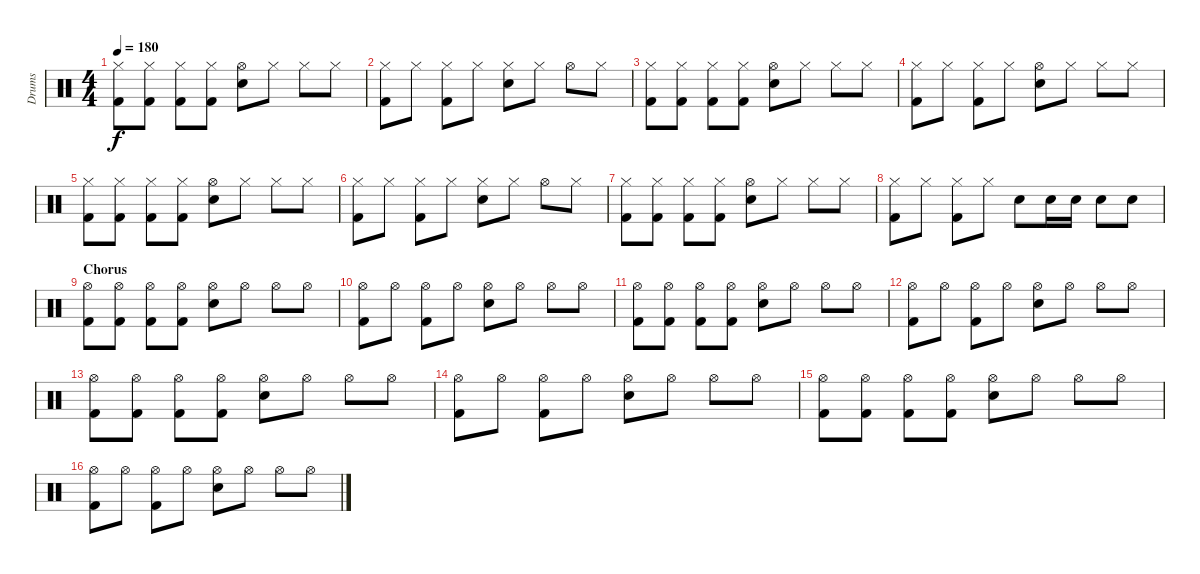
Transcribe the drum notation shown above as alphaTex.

\track ("Drums" "Drums") {instrument percussion}
\staff {score}
\articulation defaults
\ts (4 4)
\tempo 180
\clef neutral
\ks c
("Hi-Hat (closed)" "Kick (hit) 2").8{dy f} ("Hi-Hat (closed)" "Kick (hit) 2").8 ("Hi-Hat (closed)" "Kick (hit) 2").8 ("Hi-Hat (closed)" "Kick (hit) 2").8 ("Hi-Hat (open)" "Electric Snare (hit)").8 "Hi-Hat (closed)".8 "Hi-Hat (closed)".8 "Hi-Hat (closed)".8 |
("Hi-Hat (closed)" "Kick (hit) 2").8 "Hi-Hat (closed)".8 ("Hi-Hat (closed)" "Kick (hit) 2").8 "Hi-Hat (closed)".8 ("Hi-Hat (closed)" "Electric Snare (hit)").8 "Hi-Hat (closed)".8 "Hi-Hat (open)".8 "Hi-Hat (closed)".8 |
("Hi-Hat (closed)" "Kick (hit) 2").8 ("Hi-Hat (closed)" "Kick (hit) 2").8 ("Hi-Hat (closed)" "Kick (hit) 2").8 ("Hi-Hat (closed)" "Kick (hit) 2").8 ("Hi-Hat (open)" "Electric Snare (hit)").8 "Hi-Hat (closed)".8 "Hi-Hat (closed)".8 "Hi-Hat (closed)".8 |
("Hi-Hat (closed)" "Kick (hit) 2").8 "Hi-Hat (closed)".8 ("Hi-Hat (closed)" "Kick (hit) 2").8 "Hi-Hat (closed)".8 ("Hi-Hat (open)" "Electric Snare (hit)").8 "Hi-Hat (closed)".8 "Hi-Hat (closed)".8 "Hi-Hat (closed)".8 |
("Hi-Hat (closed)" "Kick (hit) 2").8 ("Hi-Hat (closed)" "Kick (hit) 2").8 ("Hi-Hat (closed)" "Kick (hit) 2").8 ("Hi-Hat (closed)" "Kick (hit) 2").8 ("Hi-Hat (open)" "Electric Snare (hit)").8 "Hi-Hat (closed)".8 "Hi-Hat (closed)".8 "Hi-Hat (closed)".8 |
("Hi-Hat (closed)" "Kick (hit) 2").8 "Hi-Hat (closed)".8 ("Hi-Hat (closed)" "Kick (hit) 2").8 "Hi-Hat (closed)".8 ("Hi-Hat (closed)" "Electric Snare (hit)").8 "Hi-Hat (closed)".8 "Hi-Hat (open)".8 "Hi-Hat (closed)".8 |
("Hi-Hat (closed)" "Kick (hit) 2").8 ("Hi-Hat (closed)" "Kick (hit) 2").8 ("Hi-Hat (closed)" "Kick (hit) 2").8 ("Hi-Hat (closed)" "Kick (hit) 2").8 ("Hi-Hat (open)" "Electric Snare (hit)").8 "Hi-Hat (closed)".8 "Hi-Hat (closed)".8 "Hi-Hat (closed)".8 |
("Hi-Hat (closed)" "Kick (hit) 2").8 "Hi-Hat (closed)".8 ("Hi-Hat (closed)" "Kick (hit) 2").8 "Hi-Hat (closed)".8 "Snare (hit) 2".8 "Snare (hit) 2".16 "Snare (hit) 2".16 "Snare (hit) 2".8 "Snare (hit) 2".8 |
\section ("" "Chorus")
("Hi-Hat (open)" "Kick (hit) 2").8 ("Hi-Hat (open)" "Kick (hit) 2").8 ("Hi-Hat (open)" "Kick (hit) 2").8 ("Hi-Hat (open)" "Kick (hit) 2").8 ("Hi-Hat (open)" "Electric Snare (hit)").8 "Hi-Hat (open)".8 "Hi-Hat (open)".8 "Hi-Hat (open)".8 |
("Hi-Hat (open)" "Kick (hit) 2").8 "Hi-Hat (open)".8 ("Hi-Hat (open)" "Kick (hit) 2").8 "Hi-Hat (open)".8 ("Hi-Hat (open)" "Electric Snare (hit)").8 "Hi-Hat (open)".8 "Hi-Hat (open)".8 "Hi-Hat (open)".8 |
("Hi-Hat (open)" "Kick (hit) 2").8 ("Hi-Hat (open)" "Kick (hit) 2").8 ("Hi-Hat (open)" "Kick (hit) 2").8 ("Hi-Hat (open)" "Kick (hit) 2").8 ("Hi-Hat (open)" "Electric Snare (hit)").8 "Hi-Hat (open)".8 "Hi-Hat (open)".8 "Hi-Hat (open)".8 |
("Hi-Hat (open)" "Kick (hit) 2").8 "Hi-Hat (open)".8 ("Hi-Hat (open)" "Kick (hit) 2").8 "Hi-Hat (open)".8 ("Hi-Hat (open)" "Electric Snare (hit)").8 "Hi-Hat (open)".8 "Hi-Hat (open)".8 "Hi-Hat (open)".8 |
("Hi-Hat (open)" "Kick (hit) 2").8 ("Hi-Hat (open)" "Kick (hit) 2").8 ("Hi-Hat (open)" "Kick (hit) 2").8 ("Hi-Hat (open)" "Kick (hit) 2").8 ("Hi-Hat (open)" "Electric Snare (hit)").8 "Hi-Hat (open)".8 "Hi-Hat (open)".8 "Hi-Hat (open)".8 |
("Hi-Hat (open)" "Kick (hit) 2").8 "Hi-Hat (open)".8 ("Hi-Hat (open)" "Kick (hit) 2").8 "Hi-Hat (open)".8 ("Hi-Hat (open)" "Electric Snare (hit)").8 "Hi-Hat (open)".8 "Hi-Hat (open)".8 "Hi-Hat (open)".8 |
("Hi-Hat (open)" "Kick (hit) 2").8 ("Hi-Hat (open)" "Kick (hit) 2").8 ("Hi-Hat (open)" "Kick (hit) 2").8 ("Hi-Hat (open)" "Kick (hit) 2").8 ("Hi-Hat (open)" "Electric Snare (hit)").8 "Hi-Hat (open)".8 "Hi-Hat (open)".8 "Hi-Hat (open)".8 |
("Hi-Hat (open)" "Kick (hit) 2").8 "Hi-Hat (open)".8 ("Hi-Hat (open)" "Kick (hit) 2").8 "Hi-Hat (open)".8 ("Hi-Hat (open)" "Electric Snare (hit)").8 "Hi-Hat (open)".8 "Hi-Hat (open)".8 "Hi-Hat (open)".8
